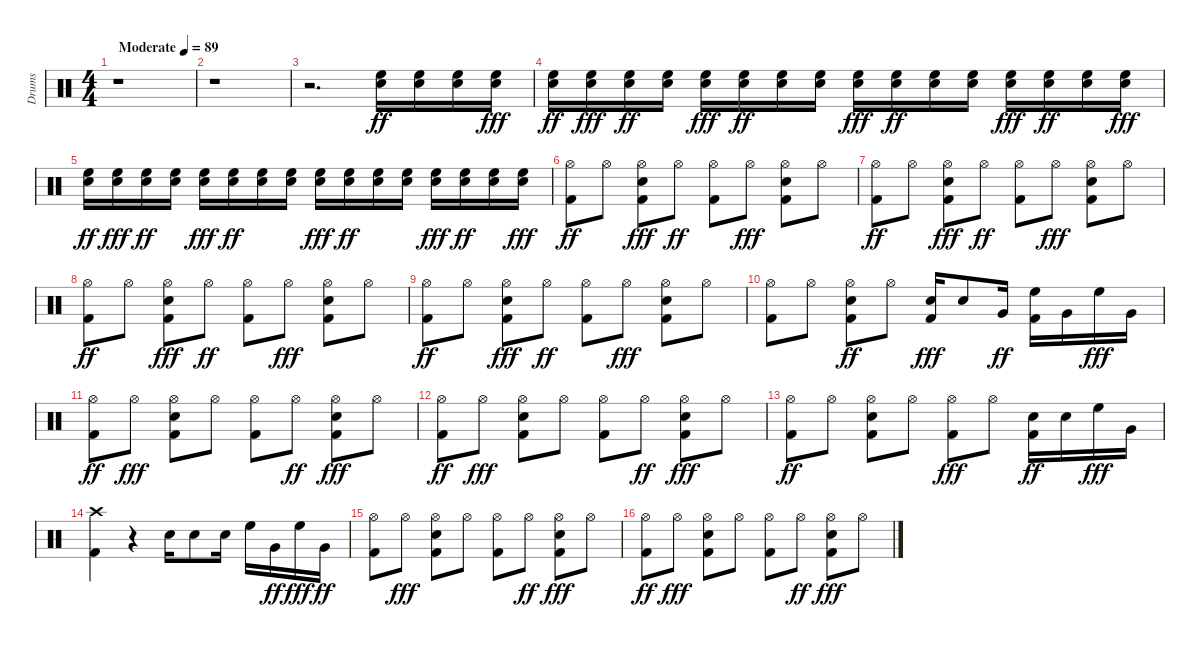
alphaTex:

\track ("Drums" "Drums") {instrument percussion}
\staff {score}
\articulation defaults
\ts (4 4)
\tempo (89 "Moderate")
\clef neutral
\ks c
r.1{dy ff} |
r.1 |
r.2{d} ("High Floor Tom (hit)" "Snare (hit) 2").16 ("High Floor Tom (hit)" "Snare (hit) 2").16 ("Snare (hit) 2" "High Floor Tom (hit)").16 ("High Floor Tom (hit)" "Snare (hit) 2").16{dy fff} |
("Snare (hit) 2" "High Floor Tom (hit)").16{dy ff} ("High Floor Tom (hit)" "Snare (hit) 2").16{dy fff} ("High Floor Tom (hit)" "Snare (hit) 2").16{dy ff} ("Snare (hit) 2" "High Floor Tom (hit)").16 ("High Floor Tom (hit)" "Snare (hit) 2").16{dy fff} ("High Floor Tom (hit)" "Snare (hit) 2").16{dy ff} ("High Floor Tom (hit)" "Snare (hit) 2").16 ("Snare (hit) 2" "High Floor Tom (hit)").16 ("High Floor Tom (hit)" "Snare (hit) 2").16{dy fff} ("High Floor Tom (hit)" "Snare (hit) 2").16{dy ff} ("High Floor Tom (hit)" "Snare (hit) 2").16 ("Snare (hit) 2" "High Floor Tom (hit)").16 ("High Floor Tom (hit)" "Snare (hit) 2").16{dy fff} ("High Floor Tom (hit)" "Snare (hit) 2").16{dy ff} ("High Floor Tom (hit)" "Snare (hit) 2").16 ("High Floor Tom (hit)" "Snare (hit) 2").16{dy fff} |
("Snare (hit) 2" "High Floor Tom (hit)").16{dy ff} ("High Floor Tom (hit)" "Snare (hit) 2").16{dy fff} ("High Floor Tom (hit)" "Snare (hit) 2").16{dy ff} ("Snare (hit) 2" "High Floor Tom (hit)").16 ("High Floor Tom (hit)" "Snare (hit) 2").16{dy fff} ("High Floor Tom (hit)" "Snare (hit) 2").16{dy ff} ("High Floor Tom (hit)" "Snare (hit) 2").16 ("Snare (hit) 2" "High Floor Tom (hit)").16 ("High Floor Tom (hit)" "Snare (hit) 2").16{dy fff} ("High Floor Tom (hit)" "Snare (hit) 2").16{dy ff} ("High Floor Tom (hit)" "Snare (hit) 2").16 ("Snare (hit) 2" "High Floor Tom (hit)").16 ("High Floor Tom (hit)" "Snare (hit) 2").16{dy fff} ("High Floor Tom (hit)" "Snare (hit) 2").16{dy ff} ("High Floor Tom (hit)" "Snare (hit) 2").16 ("High Floor Tom (hit)" "Snare (hit) 2").16{dy fff} |
("Kick (hit) 2" "Hi-Hat (open)").8{dy ff} "Hi-Hat (open)".8 ("Kick (hit) 2" "Hi-Hat (open)" "Snare (hit) 2").8{dy fff} "Hi-Hat (open)".8{dy ff} ("Kick (hit) 2" "Hi-Hat (open)").8 "Hi-Hat (open)".8{dy fff} ("Kick (hit) 2" "Hi-Hat (open)" "Snare (hit) 2").8 "Hi-Hat (open)".8 |
("Kick (hit) 2" "Hi-Hat (open)").8{dy ff} "Hi-Hat (open)".8 ("Kick (hit) 2" "Hi-Hat (open)" "Snare (hit) 2").8{dy fff} "Hi-Hat (open)".8{dy ff} ("Kick (hit) 2" "Hi-Hat (open)").8 "Hi-Hat (open)".8{dy fff} ("Kick (hit) 2" "Hi-Hat (open)" "Snare (hit) 2").8 "Hi-Hat (open)".8 |
("Kick (hit) 2" "Hi-Hat (open)").8{dy ff} "Hi-Hat (open)".8 ("Kick (hit) 2" "Hi-Hat (open)" "Snare (hit) 2").8{dy fff} "Hi-Hat (open)".8{dy ff} ("Kick (hit) 2" "Hi-Hat (open)").8 "Hi-Hat (open)".8{dy fff} ("Kick (hit) 2" "Hi-Hat (open)" "Snare (hit) 2").8 "Hi-Hat (open)".8 |
("Kick (hit) 2" "Hi-Hat (open)").8{dy ff} "Hi-Hat (open)".8 ("Kick (hit) 2" "Hi-Hat (open)" "Snare (hit) 2").8{dy fff} "Hi-Hat (open)".8{dy ff} ("Kick (hit) 2" "Hi-Hat (open)").8 "Hi-Hat (open)".8{dy fff} ("Kick (hit) 2" "Hi-Hat (open)" "Snare (hit) 2").8 "Hi-Hat (open)".8 |
("Kick (hit) 2" "Hi-Hat (open)").8 "Hi-Hat (open)".8 ("Kick (hit) 2" "Snare (hit) 2" "Hi-Hat (open)").8{dy ff} "Hi-Hat (open)".8 ("Kick (hit) 2" "Snare (hit) 2").16{dy fff} "Snare (hit) 2".8 "Very Low Tom (hit)".16{dy ff} ("Kick (hit) 2" "High Floor Tom (hit)").16 "Very Low Tom (hit)".16 "High Floor Tom (hit)".16{dy fff} "Very Low Tom (hit)".16 |
("Kick (hit) 2" "Hi-Hat (open)").8{dy ff} "Hi-Hat (open)".8{dy fff} ("Kick (hit) 2" "Snare (hit) 2" "Hi-Hat (open)").8 "Hi-Hat (open)".8 ("Kick (hit) 2" "Hi-Hat (open)").8 "Hi-Hat (open)".8{dy ff} ("Kick (hit) 2" "Hi-Hat (open)" "Snare (hit) 2").8{dy fff} "Hi-Hat (open)".8 |
("Kick (hit) 2" "Hi-Hat (open)").8{dy ff} "Hi-Hat (open)".8{dy fff} ("Kick (hit) 2" "Snare (hit) 2" "Hi-Hat (open)").8 "Hi-Hat (open)".8 ("Kick (hit) 2" "Hi-Hat (open)").8 "Hi-Hat (open)".8{dy ff} ("Kick (hit) 2" "Hi-Hat (open)" "Snare (hit) 2").8{dy fff} "Hi-Hat (open)".8 |
("Kick (hit) 2" "Hi-Hat (open)").8{dy ff} "Hi-Hat (open)".8 ("Kick (hit) 2" "Snare (hit) 2" "Hi-Hat (open)").8 "Hi-Hat (open)".8 ("Kick (hit) 2" "Hi-Hat (open)").8{dy fff} "Hi-Hat (open)".8 ("Kick (hit) 2" "Snare (hit) 2").16{dy ff} "Snare (hit) 2".16 "High Floor Tom (hit)".16{dy fff} "Very Low Tom (hit)".16 |
("Kick (hit) 2" "Crash high (hit)").4 r.4 "Snare (hit) 2".16 "Snare (hit) 2".8 "Snare (hit) 2".16 "High Floor Tom (hit)".16 "Very Low Tom (hit)".16{dy ff} "High Floor Tom (hit)".16{dy fff} "Very Low Tom (hit)".16{dy ff} |
("Kick (hit) 2" "Hi-Hat (open)").8 "Hi-Hat (open)".8{dy fff} ("Kick (hit) 2" "Snare (hit) 2" "Hi-Hat (open)").8 "Hi-Hat (open)".8 ("Kick (hit) 2" "Hi-Hat (open)").8 "Hi-Hat (open)".8{dy ff} ("Kick (hit) 2" "Hi-Hat (open)" "Snare (hit) 2").8{dy fff} "Hi-Hat (open)".8 |
("Kick (hit) 2" "Hi-Hat (open)").8{dy ff} "Hi-Hat (open)".8{dy fff} ("Kick (hit) 2" "Snare (hit) 2" "Hi-Hat (open)").8 "Hi-Hat (open)".8 ("Kick (hit) 2" "Hi-Hat (open)").8 "Hi-Hat (open)".8{dy ff} ("Kick (hit) 2" "Hi-Hat (open)" "Snare (hit) 2").8{dy fff} "Hi-Hat (open)".8
